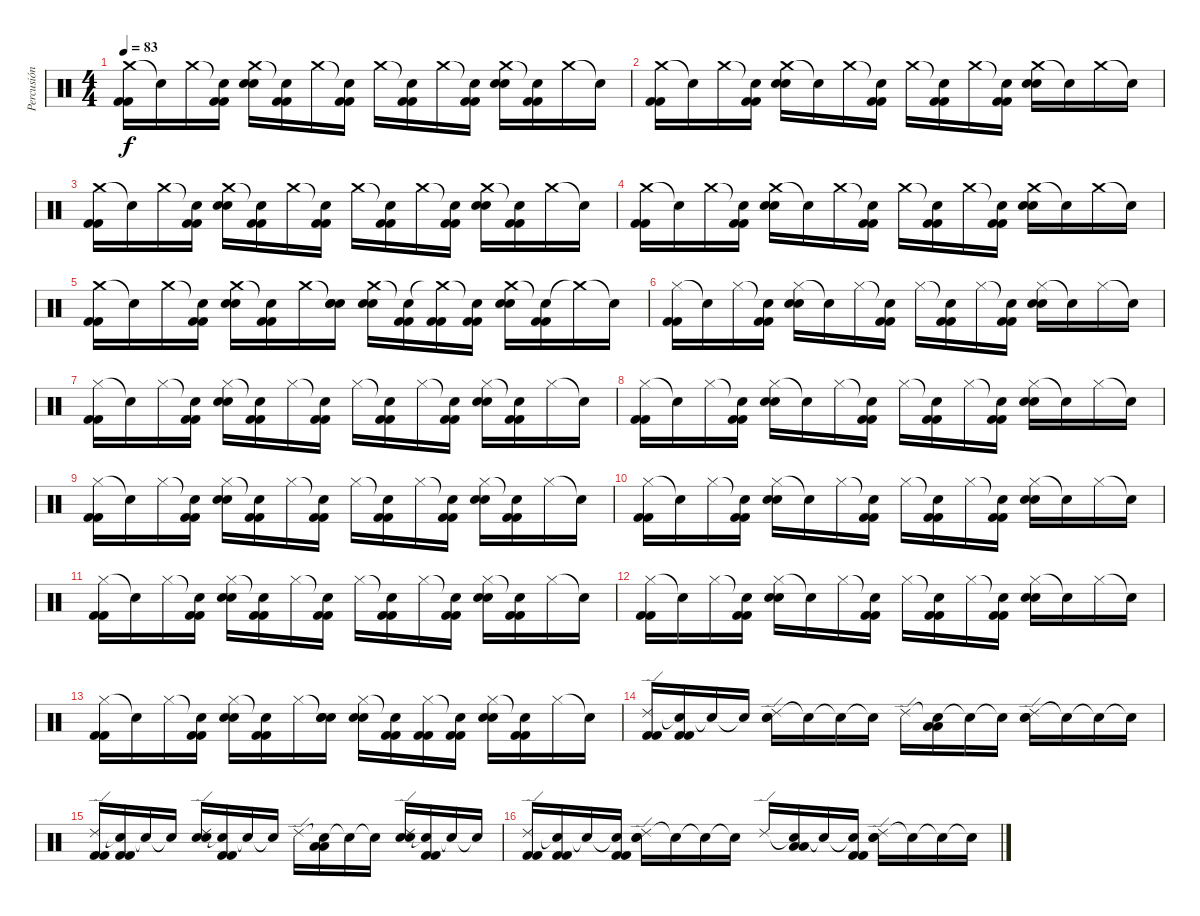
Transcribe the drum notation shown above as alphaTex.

\track ("Percusión" "Percusión") {instrument percussion}
\staff {score}
\articulation defaults
\ts (4 4)
\tempo 83
\clef neutral
\ks c
("Crash medium (hit)" "Kick (hit) 2" "Kick (hit) 2").16{dy f} "Snare (hit)"{t}.16 "Crash medium (hit)".16 ("Snare (hit)"{t} "Kick (hit) 2" "Kick (hit) 2").16 ("Crash medium (hit)" "Electric Snare (hit)" "Electric Snare (hit)").16 ("Snare (hit)"{t} "Kick (hit) 2" "Kick (hit) 2").16 "Crash medium (hit)".16 ("Snare (hit)"{t} "Kick (hit) 2" "Kick (hit) 2").16 "Crash medium (hit)".16 ("Snare (hit)"{t} "Kick (hit) 2" "Kick (hit) 2").16 "Crash medium (hit)".16 ("Snare (hit)"{t} "Kick (hit) 2" "Kick (hit) 2").16 ("Crash medium (hit)" "Electric Snare (hit)" "Electric Snare (hit)").16 ("Snare (hit)"{t} "Kick (hit) 2" "Kick (hit) 2").16 "Crash medium (hit)".16 "Snare (hit)"{t}.16 |
("Crash medium (hit)" "Kick (hit) 2" "Kick (hit) 2").16 "Snare (hit)"{t}.16 "Crash medium (hit)".16 ("Snare (hit)"{t} "Kick (hit) 2" "Kick (hit) 2").16 ("Crash medium (hit)" "Electric Snare (hit)" "Electric Snare (hit)").16 "Snare (hit)"{t}.16 "Crash medium (hit)".16 ("Snare (hit)"{t} "Kick (hit) 2" "Kick (hit) 2").16 "Crash medium (hit)".16 ("Snare (hit)"{t} "Kick (hit) 2" "Kick (hit) 2").16 "Crash medium (hit)".16 ("Snare (hit)"{t} "Kick (hit) 2" "Kick (hit) 2").16 ("Crash medium (hit)" "Electric Snare (hit)" "Electric Snare (hit)").16 "Snare (hit)"{t}.16 "Crash medium (hit)".16 "Snare (hit)"{t}.16 |
("Crash medium (hit)" "Kick (hit) 2" "Kick (hit) 2").16 "Snare (hit)"{t}.16 "Crash medium (hit)".16 ("Snare (hit)"{t} "Kick (hit) 2" "Kick (hit) 2").16 ("Crash medium (hit)" "Electric Snare (hit)" "Electric Snare (hit)").16 ("Snare (hit)"{t} "Kick (hit) 2" "Kick (hit) 2").16 "Crash medium (hit)".16 ("Snare (hit)"{t} "Kick (hit) 2" "Kick (hit) 2").16 "Crash medium (hit)".16 ("Snare (hit)"{t} "Kick (hit) 2" "Kick (hit) 2").16 "Crash medium (hit)".16 ("Snare (hit)"{t} "Kick (hit) 2" "Kick (hit) 2").16 ("Crash medium (hit)" "Electric Snare (hit)" "Electric Snare (hit)").16 ("Snare (hit)"{t} "Kick (hit) 2" "Kick (hit) 2").16 "Crash medium (hit)".16 "Snare (hit)"{t}.16 |
("Crash medium (hit)" "Kick (hit) 2" "Kick (hit) 2").16 "Snare (hit)"{t}.16 "Crash medium (hit)".16 ("Snare (hit)"{t} "Kick (hit) 2" "Kick (hit) 2").16 ("Crash medium (hit)" "Electric Snare (hit)" "Electric Snare (hit)").16 "Snare (hit)"{t}.16 "Crash medium (hit)".16 ("Snare (hit)"{t} "Kick (hit) 2" "Kick (hit) 2").16 "Crash medium (hit)".16 ("Snare (hit)"{t} "Kick (hit) 2" "Kick (hit) 2").16 "Crash medium (hit)".16 ("Snare (hit)"{t} "Kick (hit) 2" "Kick (hit) 2").16 ("Crash medium (hit)" "Electric Snare (hit)" "Electric Snare (hit)").16 "Snare (hit)"{t}.16 "Crash medium (hit)".16 "Snare (hit)"{t}.16 |
("Crash medium (hit)" "Kick (hit) 2" "Kick (hit) 2").16 "Snare (hit)"{t}.16 "Crash medium (hit)".16 ("Snare (hit)"{t} "Kick (hit) 2" "Kick (hit) 2").16 ("Crash medium (hit)" "Electric Snare (hit)" "Electric Snare (hit)").16 ("Snare (hit)"{t} "Kick (hit) 2" "Kick (hit) 2").16 "Crash medium (hit)".16 ("Snare (hit)"{t} "Electric Snare (hit)" "Electric Snare (hit)").16 ("Crash medium (hit)" "Electric Snare (hit)" "Electric Snare (hit)").16 ("Snare (hit)"{t} "Kick (hit) 2" "Kick (hit) 2").16 ("Crash medium (hit)"{t} "Kick (hit) 2" "Kick (hit) 2").16 ("Snare (hit)"{t} "Kick (hit) 2" "Kick (hit) 2").16 ("Crash medium (hit)" "Electric Snare (hit)" "Electric Snare (hit)").16 ("Snare (hit)"{t} "Kick (hit) 2" "Kick (hit) 2").16 "Crash medium (hit)"{t}.16 "Snare (hit)"{t}.16 |
("Hi-Hat (closed)" "Kick (hit) 2" "Kick (hit) 2").16 "Snare (hit)"{t}.16 "Hi-Hat (closed)".16 ("Snare (hit)"{t} "Kick (hit) 2" "Kick (hit) 2").16 ("Hi-Hat (closed)" "Electric Snare (hit)" "Electric Snare (hit)").16 "Snare (hit)"{t}.16 "Hi-Hat (closed)".16 ("Snare (hit)"{t} "Kick (hit) 2" "Kick (hit) 2").16 "Hi-Hat (closed)".16 ("Snare (hit)"{t} "Kick (hit) 2" "Kick (hit) 2").16 "Hi-Hat (closed)".16 ("Snare (hit)"{t} "Kick (hit) 2" "Kick (hit) 2").16 ("Hi-Hat (closed)" "Electric Snare (hit)" "Electric Snare (hit)").16 "Snare (hit)"{t}.16 "Hi-Hat (closed)".16 "Snare (hit)"{t}.16 |
("Hi-Hat (closed)" "Kick (hit) 2" "Kick (hit) 2").16 "Snare (hit)"{t}.16 "Hi-Hat (closed)".16 ("Snare (hit)"{t} "Kick (hit) 2" "Kick (hit) 2").16 ("Hi-Hat (closed)" "Electric Snare (hit)" "Electric Snare (hit)").16 ("Snare (hit)"{t} "Kick (hit) 2" "Kick (hit) 2").16 "Hi-Hat (closed)".16 ("Snare (hit)"{t} "Kick (hit) 2" "Kick (hit) 2").16 "Hi-Hat (closed)".16 ("Snare (hit)"{t} "Kick (hit) 2" "Kick (hit) 2").16 "Hi-Hat (closed)".16 ("Snare (hit)"{t} "Kick (hit) 2" "Kick (hit) 2").16 ("Hi-Hat (closed)" "Electric Snare (hit)" "Electric Snare (hit)").16 ("Snare (hit)"{t} "Kick (hit) 2" "Kick (hit) 2").16 "Hi-Hat (closed)".16 "Snare (hit)"{t}.16 |
("Hi-Hat (closed)" "Kick (hit) 2" "Kick (hit) 2").16 "Snare (hit)"{t}.16 "Hi-Hat (closed)".16 ("Snare (hit)"{t} "Kick (hit) 2" "Kick (hit) 2").16 ("Hi-Hat (closed)" "Electric Snare (hit)" "Electric Snare (hit)").16 "Snare (hit)"{t}.16 "Hi-Hat (closed)".16 ("Snare (hit)"{t} "Kick (hit) 2" "Kick (hit) 2").16 "Hi-Hat (closed)".16 ("Snare (hit)"{t} "Kick (hit) 2" "Kick (hit) 2").16 "Hi-Hat (closed)".16 ("Snare (hit)"{t} "Kick (hit) 2" "Kick (hit) 2").16 ("Hi-Hat (closed)" "Electric Snare (hit)" "Electric Snare (hit)").16 "Snare (hit)"{t}.16 "Hi-Hat (closed)".16 "Snare (hit)"{t}.16 |
("Hi-Hat (closed)" "Kick (hit) 2" "Kick (hit) 2").16 "Snare (hit)"{t}.16 "Hi-Hat (closed)".16 ("Snare (hit)"{t} "Kick (hit) 2" "Kick (hit) 2").16 ("Hi-Hat (closed)" "Electric Snare (hit)" "Electric Snare (hit)").16 ("Snare (hit)"{t} "Kick (hit) 2" "Kick (hit) 2").16 "Hi-Hat (closed)".16 ("Snare (hit)"{t} "Kick (hit) 2" "Kick (hit) 2").16 "Hi-Hat (closed)".16 ("Snare (hit)"{t} "Kick (hit) 2" "Kick (hit) 2").16 "Hi-Hat (closed)".16 ("Snare (hit)"{t} "Kick (hit) 2" "Kick (hit) 2").16 ("Hi-Hat (closed)" "Electric Snare (hit)" "Electric Snare (hit)").16 ("Snare (hit)"{t} "Kick (hit) 2" "Kick (hit) 2").16 "Hi-Hat (closed)".16 "Snare (hit)"{t}.16 |
("Hi-Hat (closed)" "Kick (hit) 2" "Kick (hit) 2").16 "Snare (hit)"{t}.16 "Hi-Hat (closed)".16 ("Snare (hit)"{t} "Kick (hit) 2" "Kick (hit) 2").16 ("Hi-Hat (closed)" "Electric Snare (hit)" "Electric Snare (hit)").16 "Snare (hit)"{t}.16 "Hi-Hat (closed)".16 ("Snare (hit)"{t} "Kick (hit) 2" "Kick (hit) 2").16 "Hi-Hat (closed)".16 ("Snare (hit)"{t} "Kick (hit) 2" "Kick (hit) 2").16 "Hi-Hat (closed)".16 ("Snare (hit)"{t} "Kick (hit) 2" "Kick (hit) 2").16 ("Hi-Hat (closed)" "Electric Snare (hit)" "Electric Snare (hit)").16 "Snare (hit)"{t}.16 "Hi-Hat (closed)".16 "Snare (hit)"{t}.16 |
("Hi-Hat (closed)" "Kick (hit) 2" "Kick (hit) 2").16 "Snare (hit)"{t}.16 "Hi-Hat (closed)".16 ("Snare (hit)"{t} "Kick (hit) 2" "Kick (hit) 2").16 ("Hi-Hat (closed)" "Electric Snare (hit)" "Electric Snare (hit)").16 ("Snare (hit)"{t} "Kick (hit) 2" "Kick (hit) 2").16 "Hi-Hat (closed)".16 ("Snare (hit)"{t} "Kick (hit) 2" "Kick (hit) 2").16 "Hi-Hat (closed)".16 ("Snare (hit)"{t} "Kick (hit) 2" "Kick (hit) 2").16 "Hi-Hat (closed)".16 ("Snare (hit)"{t} "Kick (hit) 2" "Kick (hit) 2").16 ("Hi-Hat (closed)" "Electric Snare (hit)" "Electric Snare (hit)").16 ("Snare (hit)"{t} "Kick (hit) 2" "Kick (hit) 2").16 "Hi-Hat (closed)".16 "Snare (hit)"{t}.16 |
("Hi-Hat (closed)" "Kick (hit) 2" "Kick (hit) 2").16 "Snare (hit)"{t}.16 "Hi-Hat (closed)".16 ("Snare (hit)"{t} "Kick (hit) 2" "Kick (hit) 2").16 ("Hi-Hat (closed)" "Electric Snare (hit)" "Electric Snare (hit)").16 "Snare (hit)"{t}.16 "Hi-Hat (closed)".16 ("Snare (hit)"{t} "Kick (hit) 2" "Kick (hit) 2").16 "Hi-Hat (closed)".16 ("Snare (hit)"{t} "Kick (hit) 2" "Kick (hit) 2").16 "Hi-Hat (closed)".16 ("Snare (hit)"{t} "Kick (hit) 2" "Kick (hit) 2").16 ("Hi-Hat (closed)" "Electric Snare (hit)" "Electric Snare (hit)").16 "Snare (hit)"{t}.16 "Hi-Hat (closed)".16 "Snare (hit)"{t}.16 |
("Hi-Hat (closed)" "Kick (hit) 2" "Kick (hit) 2").16 "Snare (hit)"{t}.16 "Hi-Hat (closed)".16 ("Snare (hit)"{t} "Kick (hit) 2" "Kick (hit) 2").16 ("Hi-Hat (closed)" "Electric Snare (hit)" "Electric Snare (hit)").16 ("Snare (hit)"{t} "Kick (hit) 2" "Kick (hit) 2").16 "Hi-Hat (closed)".16 ("Snare (hit)"{t} "Electric Snare (hit)" "Electric Snare (hit)").16 ("Hi-Hat (closed)" "Electric Snare (hit)" "Electric Snare (hit)").16 ("Snare (hit)"{t} "Kick (hit) 2" "Kick (hit) 2").16 ("Hi-Hat (closed)" "Kick (hit) 2" "Kick (hit) 2").16 ("Snare (hit)"{t} "Kick (hit) 2" "Kick (hit) 2").16 ("Hi-Hat (closed)" "Electric Snare (hit)" "Electric Snare (hit)").16 ("Snare (hit)"{t} "Kick (hit) 2" "Kick (hit) 2").16 "Hi-Hat (closed)".16 "Snare (hit)"{t}.16 |
("Ride (edge) 2" "Kick (hit) 2" "Kick (hit) 2").16 ("Snare (hit)"{t} "Kick (hit) 2" "Kick (hit) 2").16 "Snare (hit)"{t}.16 "Snare (hit)"{t}.16 ("Ride (edge) 2" "Electric Snare (hit)" "Electric Snare (hit)").16 "Snare (hit)"{t}.16 "Snare (hit)"{t}.16 "Snare (hit)"{t}.16 "Ride (edge) 2".16 ("Snare (hit)"{t} "Low Tom (hit)" "Low Tom (hit)").16 "Snare (hit)"{t}.16 "Snare (hit)"{t}.16 ("Ride (edge) 2" "Electric Snare (hit)" "Electric Snare (hit)").16 "Snare (hit)"{t}.16 "Snare (hit)"{t}.16 "Snare (hit)"{t}.16 |
("Ride (edge) 2" "Kick (hit) 2" "Kick (hit) 2").16 ("Snare (hit)"{t} "Kick (hit) 2" "Kick (hit) 2").16 "Snare (hit)"{t}.16 "Snare (hit)"{t}.16 ("Ride (edge) 2" "Electric Snare (hit)" "Electric Snare (hit)").16 ("Snare (hit)"{t} "Kick (hit) 2" "Kick (hit) 2").16 "Snare (hit)"{t}.16 "Snare (hit)"{t}.16 "Ride (edge) 2".16 ("Snare (hit)"{t} "Low Tom (hit)" "Low Tom (hit)").16 "Snare (hit)"{t}.16 "Snare (hit)"{t}.16 ("Ride (edge) 2" "Electric Snare (hit)" "Electric Snare (hit)").16 ("Snare (hit)"{t} "Kick (hit) 2" "Kick (hit) 2").16 "Snare (hit)"{t}.16 "Snare (hit)"{t}.16 |
("Ride (edge) 2" "Kick (hit) 2" "Kick (hit) 2").16 ("Snare (hit)"{t} "Kick (hit) 2" "Kick (hit) 2").16 "Snare (hit)"{t}.16 ("Snare (hit)"{t} "Kick (hit) 2" "Kick (hit) 2").16 ("Ride (edge) 2" "Electric Snare (hit)" "Electric Snare (hit)").16 "Snare (hit)"{t}.16 "Snare (hit)"{t}.16 "Snare (hit)"{t}.16 "Ride (edge) 2".16 ("Snare (hit)"{t} "Low Tom (hit)" "Low Tom (hit)").16 "Snare (hit)"{t}.16 ("Snare (hit)"{t} "Kick (hit) 2" "Kick (hit) 2").16 ("Ride (edge) 2" "Electric Snare (hit)" "Electric Snare (hit)").16 "Snare (hit)"{t}.16 "Snare (hit)"{t}.16 "Snare (hit)"{t}.16
